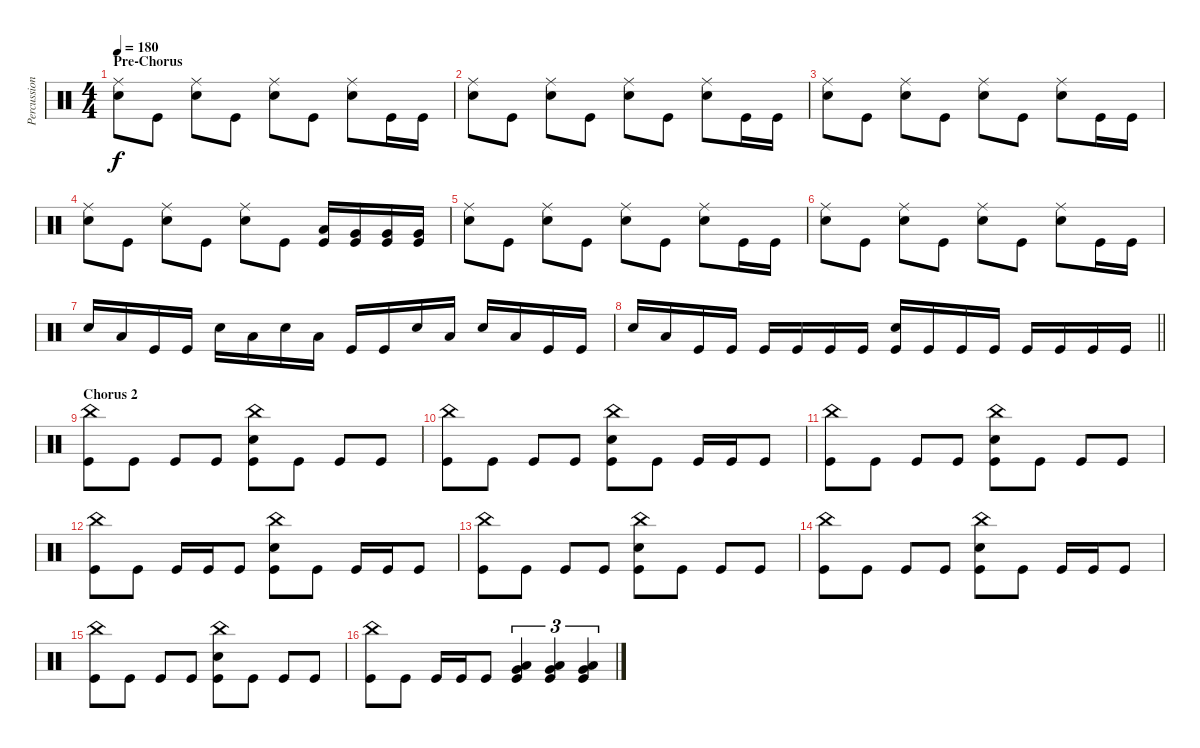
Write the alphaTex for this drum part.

\track ("Percussion" "Percussion") {instrument percussion}
\staff {score}
\articulation defaults
\ts (4 4)
\section ("" "Pre-Chorus")
\tempo 180
\clef neutral
\ks c
("Ride (middle)" "Snare (hit) 2").8{dy f} "Kick (hit)".8 ("Ride (middle)" "Snare (hit) 2").8 "Kick (hit)".8 ("Snare (hit) 2" "Ride (middle)").8 "Kick (hit)".8 ("Ride (middle)" "Snare (hit) 2").8 "Kick (hit)".16 "Kick (hit)".16 |
("Ride (middle)" "Snare (hit) 2").8 "Kick (hit)".8 ("Ride (middle)" "Snare (hit) 2").8 "Kick (hit)".8 ("Snare (hit) 2" "Ride (middle)").8 "Kick (hit)".8 ("Ride (middle)" "Snare (hit) 2").8 "Kick (hit)".16 "Kick (hit)".16 |
("Ride (middle)" "Snare (hit) 2").8 "Kick (hit)".8 ("Ride (middle)" "Snare (hit) 2").8 "Kick (hit)".8 ("Snare (hit) 2" "Ride (middle)").8 "Kick (hit)".8 ("Ride (middle)" "Snare (hit) 2").8 "Kick (hit)".16 "Kick (hit)".16 |
("Ride (middle)" "Snare (hit) 2").8 "Kick (hit)".8 ("Ride (middle)" "Snare (hit) 2").8 "Kick (hit)".8 ("Snare (hit) 2" "Ride (middle)").8 "Kick (hit)".8 ("Low Tom (hit)" "Kick (hit)").16 ("Very Low Tom (hit)" "Kick (hit)").16 ("Very Low Tom (hit)" "Kick (hit)").16 ("Very Low Tom (hit)" "Kick (hit)").16 |
("Ride (middle)" "Snare (hit) 2").8 "Kick (hit)".8 ("Ride (middle)" "Snare (hit) 2").8 "Kick (hit)".8 ("Snare (hit) 2" "Ride (middle)").8 "Kick (hit)".8 ("Ride (middle)" "Snare (hit) 2").8 "Kick (hit)".16 "Kick (hit)".16 |
("Ride (middle)" "Snare (hit) 2").8 "Kick (hit)".8 ("Ride (middle)" "Snare (hit) 2").8 "Kick (hit)".8 ("Snare (hit) 2" "Ride (middle)").8 "Kick (hit)".8 ("Ride (middle)" "Snare (hit) 2").8 "Kick (hit)".16 "Kick (hit)".16 |
"Snare (hit) 2".16 "Low Tom (hit)".16 "Kick (hit)".16 "Kick (hit)".16 "Snare (hit) 2".16 "Low Tom (hit)".16 "Snare (hit) 2".16 "Low Tom (hit)".16 "Kick (hit)".16 "Kick (hit)".16 "Snare (hit) 2".16 "Low Tom (hit)".16 "Snare (hit) 2".16 "Low Tom (hit)".16 "Kick (hit)".16 "Kick (hit)".16 |
\barLineRight lightlight "Snare (hit) 2".16 "Low Tom (hit)".16 "Kick (hit)".16 "Kick (hit)".16 "Kick (hit)".16 "Kick (hit)".16 "Kick (hit)".16 "Kick (hit)".16
("Snare (hit) 2" "Kick (hit)").16 "Kick (hit)".16 "Kick (hit)".16 "Kick (hit)".16 "Kick (hit)".16 "Kick (hit)".16 "Kick (hit)".16 "Kick (hit)".16 |
\section ("" "Chorus 2")
("China (hit)" "Kick (hit)").8 "Kick (hit)".8 "Kick (hit)".8 "Kick (hit)".8 ("China (hit)" "Kick (hit)" "Snare (hit) 2").8 "Kick (hit)".8 "Kick (hit)".8 "Kick (hit)".8 |
("China (hit)" "Kick (hit)").8 "Kick (hit)".8 "Kick (hit)".8 "Kick (hit)".8 ("China (hit)" "Kick (hit)" "Snare (hit) 2").8 "Kick (hit)".8 "Kick (hit)".16 "Kick (hit)".16 "Kick (hit)".8 |
("China (hit)" "Kick (hit)").8 "Kick (hit)".8 "Kick (hit)".8 "Kick (hit)".8 ("China (hit)" "Kick (hit)" "Snare (hit) 2").8 "Kick (hit)".8 "Kick (hit)".8 "Kick (hit)".8 |
("China (hit)" "Kick (hit)").8 "Kick (hit)".8 "Kick (hit)".16 "Kick (hit)".16 "Kick (hit)".8 ("China (hit)" "Kick (hit)" "Snare (hit) 2").8 "Kick (hit)".8 "Kick (hit)".16 "Kick (hit)".16 "Kick (hit)".8 |
("China (hit)" "Kick (hit)").8 "Kick (hit)".8 "Kick (hit)".8 "Kick (hit)".8 ("China (hit)" "Kick (hit)" "Snare (hit) 2").8 "Kick (hit)".8 "Kick (hit)".8 "Kick (hit)".8 |
("China (hit)" "Kick (hit)").8 "Kick (hit)".8 "Kick (hit)".8 "Kick (hit)".8 ("China (hit)" "Kick (hit)" "Snare (hit) 2").8 "Kick (hit)".8 "Kick (hit)".16 "Kick (hit)".16 "Kick (hit)".8 |
("China (hit)" "Kick (hit)").8 "Kick (hit)".8 "Kick (hit)".8 "Kick (hit)".8 ("China (hit)" "Kick (hit)" "Snare (hit) 2").8 "Kick (hit)".8 "Kick (hit)".8 "Kick (hit)".8 |
("China (hit)" "Kick (hit)").8 "Kick (hit)".8 "Kick (hit)".16 "Kick (hit)".16 "Kick (hit)".8 ("Kick (hit)" "Low Tom (hit)" "Very Low Tom (hit)").4{tu (3 2)} ("Kick (hit)" "Low Tom (hit)" "Very Low Tom (hit)").4{tu (3 2)} ("Kick (hit)" "Low Tom (hit)" "Very Low Tom (hit)").4{tu (3 2)}
